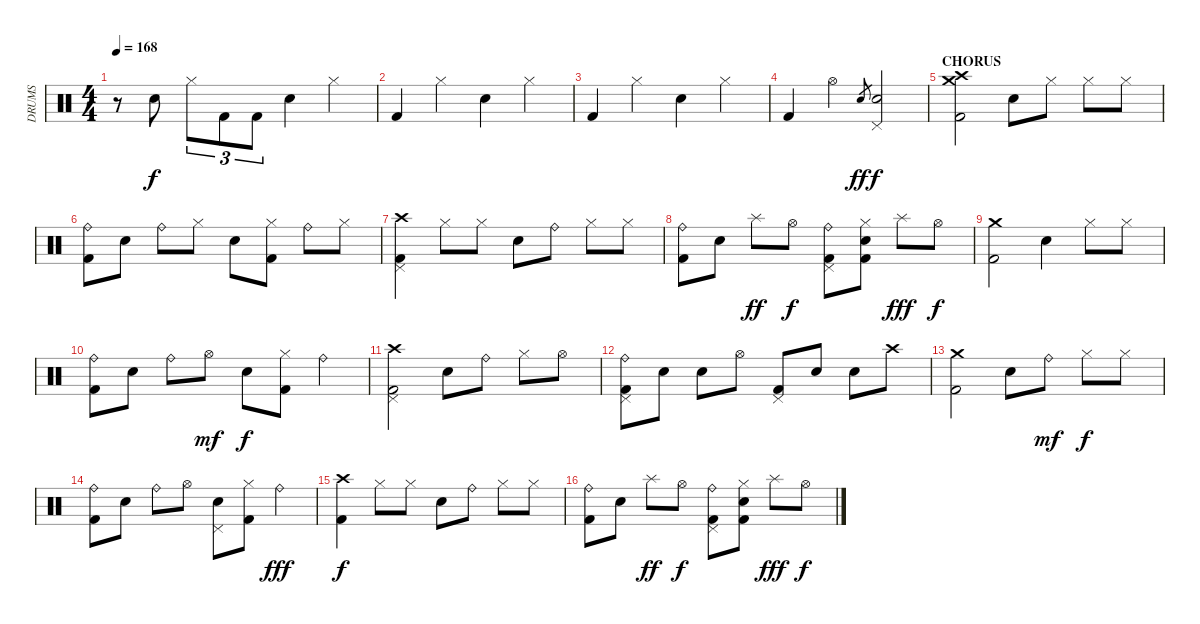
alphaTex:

\track ("DRUMS" "DRUMS") {instrument percussion}
\staff {score}
\articulation defaults
\ts (4 4)
\tempo 168
\clef neutral
\ks c
r.8{dy f} "Electric Snare (hit)".8 "Hi-Hat (closed)".8{tu (3 2)} "Kick (hit) 2".8{tu (3 2)} "Kick (hit) 2".8{tu (3 2)} "Electric Snare (hit)".4 "Hi-Hat (closed)".4 |
"Kick (hit) 2".4 "Hi-Hat (closed)".4 "Electric Snare (hit)".4 "Hi-Hat (closed)".4 |
"Kick (hit) 2".4 "Hi-Hat (closed)".4 "Electric Snare (hit)".4 "Hi-Hat (closed)".4 |
"Kick (hit) 2".4 "Hi-Hat (open)".4 "Electric Snare (hit)"{h}.8{gr dy ff} ("Electric Snare (hit)" "Pedal Hi-Hat (hit)").2{dy f} |
\section ("" "CHORUS")
("Crash medium (hit)" "Crash high (hit)" "Kick (hit) 2").2 "Electric Snare (hit)".8 "Hi-Hat (closed)".8 "Hi-Hat (closed)".8 "Hi-Hat (closed)".8 |
("Ride (bell)" "Kick (hit) 2").8 "Electric Snare (hit)".8 "Ride (bell)".8 "Hi-Hat (closed)".8 "Electric Snare (hit)".8 ("Hi-Hat (closed)" "Kick (hit) 2").8 "Ride (bell)".8 "Hi-Hat (closed)".8 |
("Crash high (hit)" "Pedal Hi-Hat (hit)" "Kick (hit) 2").4 "Hi-Hat (closed)".8 "Hi-Hat (closed)".8 "Electric Snare (hit)".8 "Ride (bell)".8 "Hi-Hat (closed)".8 "Hi-Hat (closed)".8 |
("Ride (bell)" "Kick (hit) 2").8 "Electric Snare (hit)".8 "Splash (hit)".8{dy ff} "Hi-Hat (open)".8{dy f} ("Ride (bell)" "Pedal Hi-Hat (hit)" "Kick (hit) 2").8 ("Hi-Hat (closed)" "Electric Snare (hit)" "Kick (hit) 2").8 "Splash (hit)".8{dy fff} "Hi-Hat (open)".8{dy f} |
("Crash medium (hit)" "Kick (hit) 2").2 "Electric Snare (hit)".4 "Hi-Hat (closed)".8 "Hi-Hat (closed)".8 |
("Ride (bell)" "Kick (hit) 2").8 "Electric Snare (hit)".8 "Ride (bell)".8 "Hi-Hat (open)".8{dy mf} "Electric Snare (hit)".8{dy f} ("Hi-Hat (closed)" "Kick (hit) 2").8 "Ride (bell)".4 |
("Crash high (hit)" "Pedal Hi-Hat (hit)" "Kick (hit) 2").2 "Electric Snare (hit)".8 "Ride (bell)".8 "Hi-Hat (closed)".8 "Hi-Hat (open)".8 |
("Ride (bell)" "Pedal Hi-Hat (hit)" "Kick (hit) 2").8 "Electric Snare (hit)".8 "Electric Snare (hit)".8 "Hi-Hat (open)".8 ("Pedal Hi-Hat (hit)" "Kick (hit) 2").8 "Electric Snare (hit)".8 "Electric Snare (hit)".8 "Crash high (hit)".8 |
("Crash medium (hit)" "Kick (hit) 2").2 "Electric Snare (hit)".8 "Ride (bell)".8{dy mf} "Hi-Hat (closed)".8{dy f} "Hi-Hat (closed)".8 |
("Ride (bell)" "Kick (hit) 2").8 "Electric Snare (hit)".8 "Ride (bell)".8 "Hi-Hat (open)".8 ("Electric Snare (hit)" "Pedal Hi-Hat (hit)").8 ("Hi-Hat (closed)" "Kick (hit) 2").8 "Ride (bell)".4{dy fff} |
("Crash high (hit)" "Kick (hit) 2").4{dy f} "Hi-Hat (closed)".8 "Hi-Hat (closed)".8 "Electric Snare (hit)".8 "Ride (bell)".8 "Hi-Hat (closed)".8 "Hi-Hat (closed)".8 |
("Ride (bell)" "Kick (hit) 2").8 "Electric Snare (hit)".8 "Splash (hit)".8{dy ff} "Hi-Hat (open)".8{dy f} ("Ride (bell)" "Pedal Hi-Hat (hit)" "Kick (hit) 2").8 ("Hi-Hat (closed)" "Electric Snare (hit)" "Kick (hit) 2").8 "Splash (hit)".8{dy fff} "Hi-Hat (open)".8{dy f}
